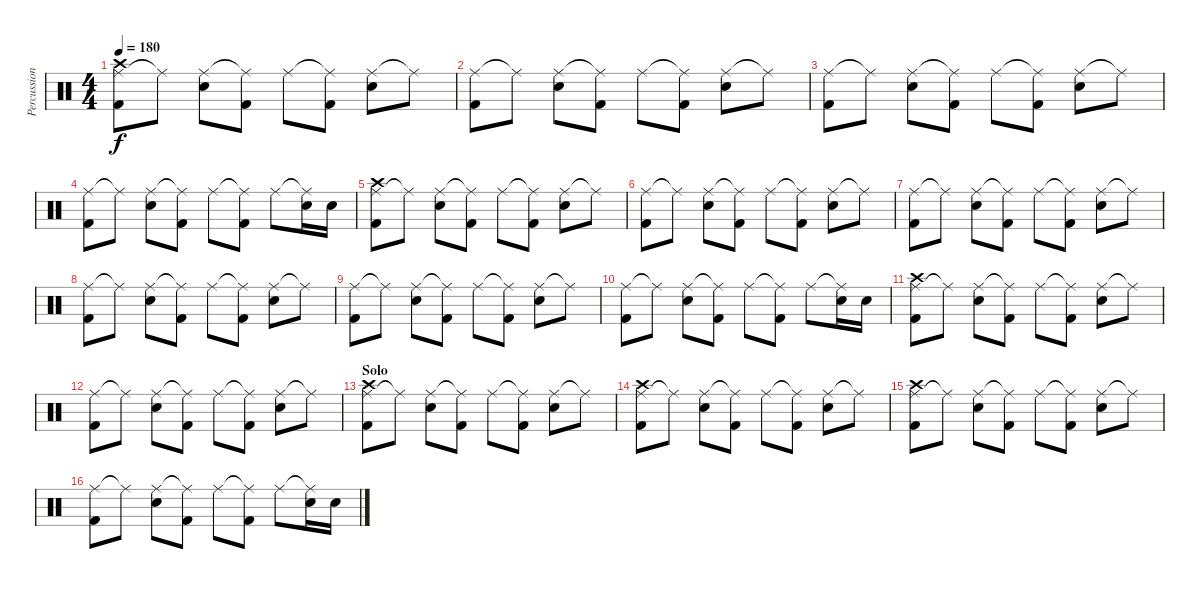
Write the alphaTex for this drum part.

\track ("Percussions" "Percussion") {instrument percussion}
\staff {score}
\articulation defaults
\ts (4 4)
\tempo 180
\clef neutral
\ks c
("Ride (middle)" "Crash high (hit)" "Kick (hit) 2").8{dy f} "Ride (middle)"{t}.8 ("Ride (middle)" "Electric Snare (hit)").8 ("Ride (middle)"{t} "Kick (hit) 2").8 "Ride (middle)".8 ("Ride (middle)"{t} "Kick (hit) 2").8 ("Ride (middle)" "Electric Snare (hit)").8 "Ride (middle)"{t}.8 |
("Ride (middle)" "Kick (hit) 2").8 "Ride (middle)"{t}.8 ("Ride (middle)" "Electric Snare (hit)").8 ("Ride (middle)"{t} "Kick (hit) 2").8 "Ride (middle)".8 ("Ride (middle)"{t} "Kick (hit) 2").8 ("Ride (middle)" "Electric Snare (hit)").8 "Ride (middle)"{t}.8 |
("Ride (middle)" "Kick (hit) 2").8 "Ride (middle)"{t}.8 ("Ride (middle)" "Electric Snare (hit)").8 ("Ride (middle)"{t} "Kick (hit) 2").8 "Ride (middle)".8 ("Ride (middle)"{t} "Kick (hit) 2").8 ("Ride (middle)" "Electric Snare (hit)").8 "Ride (middle)"{t}.8 |
("Ride (middle)" "Kick (hit) 2").8 "Ride (middle)"{t}.8 ("Ride (middle)" "Electric Snare (hit)").8 ("Ride (middle)"{t} "Kick (hit) 2").8 "Ride (middle)".8 ("Ride (middle)"{t} "Kick (hit) 2").8 "Ride (middle)".8 ("Ride (middle)"{t} "Electric Snare (hit)").16 "Electric Snare (hit)".16 |
("Ride (middle)" "Crash high (hit)" "Kick (hit) 2").8 "Ride (middle)"{t}.8 ("Ride (middle)" "Electric Snare (hit)").8 ("Ride (middle)"{t} "Kick (hit) 2").8 "Ride (middle)".8 ("Ride (middle)"{t} "Kick (hit) 2").8 ("Ride (middle)" "Electric Snare (hit)").8 "Ride (middle)"{t}.8 |
("Ride (middle)" "Kick (hit) 2").8 "Ride (middle)"{t}.8 ("Ride (middle)" "Electric Snare (hit)").8 ("Ride (middle)"{t} "Kick (hit) 2").8 "Ride (middle)".8 ("Ride (middle)"{t} "Kick (hit) 2").8 ("Ride (middle)" "Electric Snare (hit)").8 "Ride (middle)"{t}.8 |
("Ride (middle)" "Kick (hit) 2").8 "Ride (middle)"{t}.8 ("Ride (middle)" "Electric Snare (hit)").8 ("Ride (middle)"{t} "Kick (hit) 2").8 "Ride (middle)".8 ("Ride (middle)"{t} "Kick (hit) 2").8 ("Ride (middle)" "Electric Snare (hit)").8 "Ride (middle)"{t}.8 |
("Ride (middle)" "Kick (hit) 2").8 "Ride (middle)"{t}.8 ("Ride (middle)" "Electric Snare (hit)").8 ("Ride (middle)"{t} "Kick (hit) 2").8 "Ride (middle)".8 ("Ride (middle)"{t} "Kick (hit) 2").8 ("Ride (middle)" "Electric Snare (hit)").8 "Ride (middle)"{t}.8 |
("Ride (middle)" "Kick (hit) 2").8 "Ride (middle)"{t}.8 ("Ride (middle)" "Electric Snare (hit)").8 ("Ride (middle)"{t} "Kick (hit) 2").8 "Ride (middle)".8 ("Ride (middle)"{t} "Kick (hit) 2").8 ("Ride (middle)" "Electric Snare (hit)").8 "Ride (middle)"{t}.8 |
("Ride (middle)" "Kick (hit) 2").8 "Ride (middle)"{t}.8 ("Ride (middle)" "Electric Snare (hit)").8 ("Ride (middle)"{t} "Kick (hit) 2").8 "Ride (middle)".8 ("Ride (middle)"{t} "Kick (hit) 2").8 "Ride (middle)".8 ("Ride (middle)"{t} "Electric Snare (hit)").16 "Electric Snare (hit)".16 |
("Ride (middle)" "Crash high (hit)" "Kick (hit) 2").8 "Ride (middle)"{t}.8 ("Ride (middle)" "Electric Snare (hit)").8 ("Ride (middle)"{t} "Kick (hit) 2").8 "Ride (middle)".8 ("Ride (middle)"{t} "Kick (hit) 2").8 ("Ride (middle)" "Electric Snare (hit)").8 "Ride (middle)"{t}.8 |
("Ride (middle)" "Kick (hit) 2").8 "Ride (middle)"{t}.8 ("Ride (middle)" "Electric Snare (hit)").8 ("Ride (middle)"{t} "Kick (hit) 2").8 "Ride (middle)".8 ("Ride (middle)"{t} "Kick (hit) 2").8 ("Ride (middle)" "Electric Snare (hit)").8 "Ride (middle)"{t}.8 |
\section ("" "Solo")
("Ride (middle)" "Crash high (hit)" "Kick (hit) 2").8 "Ride (middle)"{t}.8 ("Ride (middle)" "Electric Snare (hit)").8 ("Ride (middle)"{t} "Kick (hit) 2").8 "Ride (middle)".8 ("Ride (middle)"{t} "Kick (hit) 2").8 ("Ride (middle)" "Electric Snare (hit)").8 "Ride (middle)"{t}.8 |
("Ride (middle)" "Crash high (hit)" "Kick (hit) 2").8 "Ride (middle)"{t}.8 ("Ride (middle)" "Electric Snare (hit)").8 ("Ride (middle)"{t} "Kick (hit) 2").8 "Ride (middle)".8 ("Ride (middle)"{t} "Kick (hit) 2").8 ("Ride (middle)" "Electric Snare (hit)").8 "Ride (middle)"{t}.8 |
("Ride (middle)" "Crash high (hit)" "Kick (hit) 2").8 "Ride (middle)"{t}.8 ("Ride (middle)" "Electric Snare (hit)").8 ("Ride (middle)"{t} "Kick (hit) 2").8 "Ride (middle)".8 ("Ride (middle)"{t} "Kick (hit) 2").8 ("Ride (middle)" "Electric Snare (hit)").8 "Ride (middle)"{t}.8 |
("Ride (middle)" "Kick (hit) 2").8 "Ride (middle)"{t}.8 ("Ride (middle)" "Electric Snare (hit)").8 ("Ride (middle)"{t} "Kick (hit) 2").8 "Ride (middle)".8 ("Ride (middle)"{t} "Kick (hit) 2").8 "Ride (middle)".8 ("Ride (middle)"{t} "Electric Snare (hit)").16 "Electric Snare (hit)".16
